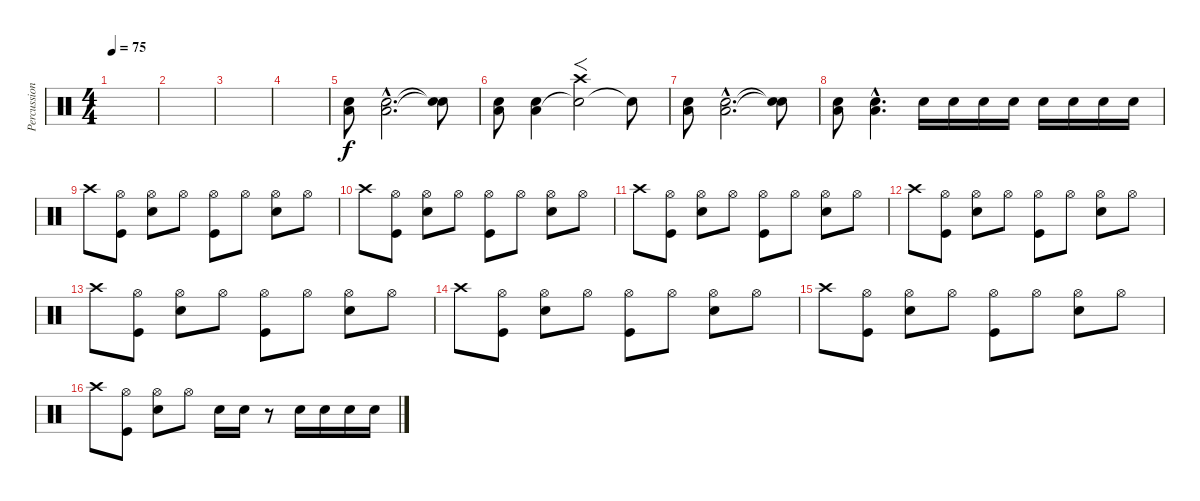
\track ("Percussion" "Percussion") {instrument percussion}
\staff {score}
\articulation defaults
\ts (4 4)
\tempo 75
\clef neutral
\ks c
|
|
|
|
("Low Tom (hit)" "Snare (hit) 2").8 ("Low Tom (hit)"{hac} "Snare (hit) 2"{hac}).2{d} ("Snare (hit)"{t} "Snare (hit)"{t}).8 |
("Low Tom (hit)" "Snare (hit) 2").8 ("Low Tom (hit)" "Snare (hit) 2").4 ("Snare (hit)"{t} "Crash high (hit)").2{f} "Snare (hit)"{t}.8 |
("Low Tom (hit)" "Snare (hit) 2").8 ("Low Tom (hit)"{hac} "Snare (hit) 2"{hac}).2{d} ("Snare (hit)"{t} "Snare (hit)"{t}).8 |
("Low Tom (hit)" "Snare (hit) 2").8 ("Low Tom (hit)"{hac} "Snare (hit) 2"{hac}).4{d} "Snare (hit) 2".16 "Snare (hit) 2".16 "Snare (hit) 2".16 "Snare (hit) 2".16 "Snare (hit) 2".16 "Snare (hit) 2".16 "Snare (hit) 2".16 "Snare (hit) 2".16 |
"Crash high (hit)".8 ("Kick (hit)" "Hi-Hat (open)").8 ("Snare (hit) 2" "Hi-Hat (open)").8 "Hi-Hat (open)".8 ("Kick (hit)" "Hi-Hat (open)").8 "Hi-Hat (open)".8 ("Snare (hit) 2" "Hi-Hat (open)").8 "Hi-Hat (open)".8 |
"Crash high (hit)".8 ("Kick (hit)" "Hi-Hat (open)").8 ("Snare (hit) 2" "Hi-Hat (open)").8 "Hi-Hat (open)".8 ("Kick (hit)" "Hi-Hat (open)").8 "Hi-Hat (open)".8 ("Snare (hit) 2" "Hi-Hat (open)").8 "Hi-Hat (open)".8 |
"Crash high (hit)".8 ("Kick (hit)" "Hi-Hat (open)").8 ("Snare (hit) 2" "Hi-Hat (open)").8 "Hi-Hat (open)".8 ("Kick (hit)" "Hi-Hat (open)").8 "Hi-Hat (open)".8 ("Snare (hit) 2" "Hi-Hat (open)").8 "Hi-Hat (open)".8 |
"Crash high (hit)".8 ("Kick (hit)" "Hi-Hat (open)").8 ("Snare (hit) 2" "Hi-Hat (open)").8 "Hi-Hat (open)".8 ("Kick (hit)" "Hi-Hat (open)").8 "Hi-Hat (open)".8 ("Snare (hit) 2" "Hi-Hat (open)").8 "Hi-Hat (open)".8 |
"Crash high (hit)".8 ("Kick (hit)" "Hi-Hat (open)").8 ("Snare (hit) 2" "Hi-Hat (open)").8 "Hi-Hat (open)".8 ("Kick (hit)" "Hi-Hat (open)").8 "Hi-Hat (open)".8 ("Snare (hit) 2" "Hi-Hat (open)").8 "Hi-Hat (open)".8 |
"Crash high (hit)".8 ("Kick (hit)" "Hi-Hat (open)").8 ("Snare (hit) 2" "Hi-Hat (open)").8 "Hi-Hat (open)".8 ("Kick (hit)" "Hi-Hat (open)").8 "Hi-Hat (open)".8 ("Snare (hit) 2" "Hi-Hat (open)").8 "Hi-Hat (open)".8 |
"Crash high (hit)".8 ("Kick (hit)" "Hi-Hat (open)").8 ("Snare (hit) 2" "Hi-Hat (open)").8 "Hi-Hat (open)".8 ("Kick (hit)" "Hi-Hat (open)").8 "Hi-Hat (open)".8 ("Snare (hit) 2" "Hi-Hat (open)").8 "Hi-Hat (open)".8 |
"Crash high (hit)".8 ("Kick (hit)" "Hi-Hat (open)").8 ("Snare (hit) 2" "Hi-Hat (open)").8 "Hi-Hat (open)".8 "Snare (hit) 2".16 "Snare (hit) 2".16 r.8 "Snare (hit) 2".16 "Snare (hit) 2".16 "Snare (hit) 2".16 "Snare (hit) 2".16
